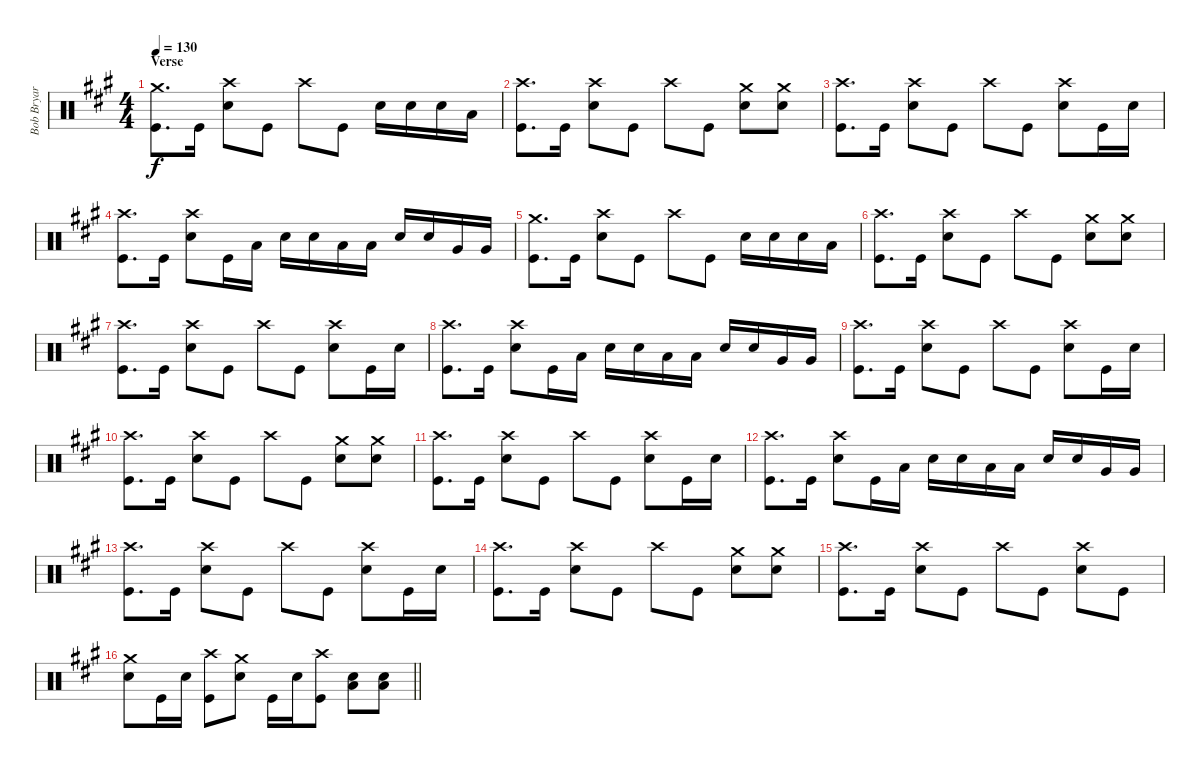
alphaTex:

\track ("Bob Bryar" "Bob Bryar") {instrument percussion}
\staff {score}
\articulation defaults
\ts (4 4)
\section ("" "Verse")
\tempo 130
\clef neutral
\ks a
("Crash medium (hit)" "Kick (hit)").8{d dy f} "Kick (hit)".16 ("Crash high (hit)" "Snare (hit) 2").8 "Kick (hit)".8 "Crash high (hit)".8 "Kick (hit)".8 "Snare (hit) 2".16 "Snare (hit) 2".16 "Snare (hit) 2".16 "Low Tom (hit)".16 |
("Crash high (hit)" "Kick (hit)").8{d} "Kick (hit)".16 ("Crash high (hit)" "Snare (hit) 2").8 "Kick (hit)".8 "Crash high (hit)".8 "Kick (hit)".8 ("Crash medium (hit)" "Snare (hit) 2").8 ("Crash medium (hit)" "Snare (hit) 2").8 |
("Crash high (hit)" "Kick (hit)").8{d} "Kick (hit)".16 ("Crash high (hit)" "Snare (hit) 2").8 "Kick (hit)".8 "Crash high (hit)".8 "Kick (hit)".8 ("Crash high (hit)" "Snare (hit) 2").8 "Kick (hit)".16 "Snare (hit) 2".16 |
("Crash high (hit)" "Kick (hit)").8{d} "Kick (hit)".16 ("Crash high (hit)" "Snare (hit) 2").8 "Kick (hit)".16 "Low Tom (hit)".16 "Snare (hit) 2".16 "Snare (hit) 2".16 "Low Tom (hit)".16 "Low Tom (hit)".16 "Snare (hit) 2".16 "Snare (hit) 2".16 "Very Low Tom (hit)".16 "Very Low Tom (hit)".16 |
("Crash medium (hit)" "Kick (hit)").8{d} "Kick (hit)".16 ("Crash high (hit)" "Snare (hit) 2").8 "Kick (hit)".8 "Crash high (hit)".8 "Kick (hit)".8 "Snare (hit) 2".16 "Snare (hit) 2".16 "Snare (hit) 2".16 "Low Tom (hit)".16 |
("Crash high (hit)" "Kick (hit)").8{d} "Kick (hit)".16 ("Crash high (hit)" "Snare (hit) 2").8 "Kick (hit)".8 "Crash high (hit)".8 "Kick (hit)".8 ("Crash medium (hit)" "Snare (hit) 2").8 ("Crash medium (hit)" "Snare (hit) 2").8 |
("Crash high (hit)" "Kick (hit)").8{d} "Kick (hit)".16 ("Crash high (hit)" "Snare (hit) 2").8 "Kick (hit)".8 "Crash high (hit)".8 "Kick (hit)".8 ("Crash high (hit)" "Snare (hit) 2").8 "Kick (hit)".16 "Snare (hit) 2".16 |
("Crash high (hit)" "Kick (hit)").8{d} "Kick (hit)".16 ("Crash high (hit)" "Snare (hit) 2").8 "Kick (hit)".16 "Low Tom (hit)".16 "Snare (hit) 2".16 "Snare (hit) 2".16 "Low Tom (hit)".16 "Low Tom (hit)".16 "Snare (hit) 2".16 "Snare (hit) 2".16 "Very Low Tom (hit)".16 "Very Low Tom (hit)".16 |
("Crash high (hit)" "Kick (hit)").8{d} "Kick (hit)".16 ("Crash high (hit)" "Snare (hit) 2").8 "Kick (hit)".8 "Crash high (hit)".8 "Kick (hit)".8 ("Crash high (hit)" "Snare (hit) 2").8 "Kick (hit)".16 "Snare (hit) 2".16 |
("Crash high (hit)" "Kick (hit)").8{d} "Kick (hit)".16 ("Crash high (hit)" "Snare (hit) 2").8 "Kick (hit)".8 "Crash high (hit)".8 "Kick (hit)".8 ("Crash medium (hit)" "Snare (hit) 2").8 ("Crash medium (hit)" "Snare (hit) 2").8 |
("Crash high (hit)" "Kick (hit)").8{d} "Kick (hit)".16 ("Crash high (hit)" "Snare (hit) 2").8 "Kick (hit)".8 "Crash high (hit)".8 "Kick (hit)".8 ("Crash high (hit)" "Snare (hit) 2").8 "Kick (hit)".16 "Snare (hit) 2".16 |
("Crash high (hit)" "Kick (hit)").8{d} "Kick (hit)".16 ("Crash high (hit)" "Snare (hit) 2").8 "Kick (hit)".16 "Low Tom (hit)".16 "Snare (hit) 2".16 "Snare (hit) 2".16 "Low Tom (hit)".16 "Low Tom (hit)".16 "Snare (hit) 2".16 "Snare (hit) 2".16 "Very Low Tom (hit)".16 "Very Low Tom (hit)".16 |
("Crash high (hit)" "Kick (hit)").8{d} "Kick (hit)".16 ("Crash high (hit)" "Snare (hit) 2").8 "Kick (hit)".8 "Crash high (hit)".8 "Kick (hit)".8 ("Crash high (hit)" "Snare (hit) 2").8 "Kick (hit)".16 "Snare (hit) 2".16 |
("Crash high (hit)" "Kick (hit)").8{d} "Kick (hit)".16 ("Crash high (hit)" "Snare (hit) 2").8 "Kick (hit)".8 "Crash high (hit)".8 "Kick (hit)".8 ("Crash medium (hit)" "Snare (hit) 2").8 ("Crash medium (hit)" "Snare (hit) 2").8 |
("Crash high (hit)" "Kick (hit)").8{d} "Kick (hit)".16 ("Crash high (hit)" "Snare (hit) 2").8 "Kick (hit)".8 "Crash high (hit)".8 "Kick (hit)".8 ("Crash high (hit)" "Snare (hit) 2").8 "Kick (hit)".8 |
\barLineRight lightlight
("Crash medium (hit)" "Snare (hit) 2").8 "Kick (hit)".16 "Snare (hit) 2".16 ("Crash high (hit)" "Kick (hit)").8 ("Crash medium (hit)" "Snare (hit) 2").8 "Kick (hit)".16 "Snare (hit) 2".16 ("Crash high (hit)" "Kick (hit)").8 ("Low Floor Tom (hit)" "Snare (hit) 2").8 ("Low Floor Tom (hit)" "Snare (hit) 2").8
